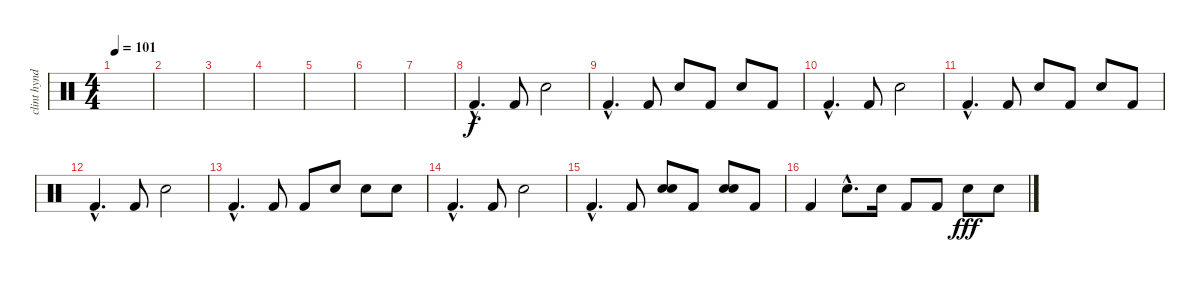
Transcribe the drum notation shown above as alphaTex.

\track ("clint hyndman" "clint hynd") {instrument percussion}
\staff {score}
\articulation defaults
\ts (4 4)
\tempo 101
\clef neutral
\ks c
|
|
|
|
|
|
|
"Kick (hit) 2"{hac}.4{d} "Kick (hit) 2".8 "Electric Snare (hit)".2 |
"Kick (hit) 2"{hac}.4{d} "Kick (hit) 2".8 "Electric Snare (hit)".8 "Kick (hit) 2".8 "Electric Snare (hit)".8 "Kick (hit) 2".8 |
"Kick (hit) 2"{hac}.4{d} "Kick (hit) 2".8 "Electric Snare (hit)".2 |
"Kick (hit) 2"{hac}.4{d} "Kick (hit) 2".8 "Electric Snare (hit)".8 "Kick (hit) 2".8 "Electric Snare (hit)".8 "Kick (hit) 2".8 |
"Kick (hit) 2"{hac}.4{d} "Kick (hit) 2".8 "Electric Snare (hit)".2 |
"Kick (hit) 2"{hac}.4{d} "Kick (hit) 2".8 "Kick (hit) 2".8 "Electric Snare (hit)".8 "Electric Snare (hit)".8 "Electric Snare (hit)".8 |
"Kick (hit) 2"{hac}.4{d} "Kick (hit) 2".8 "Electric Snare (hit)".2 |
"Kick (hit) 2"{hac}.4{d} "Kick (hit) 2".8 ("Electric Snare (hit)" "Electric Snare (hit)").8 "Kick (hit) 2".8 ("Electric Snare (hit)" "Electric Snare (hit)").8 "Kick (hit) 2".8 |
"Kick (hit) 2".4{dy f} "Electric Snare (hit)"{hac}.8{d} "Electric Snare (hit)".16 "Kick (hit) 2".8 "Kick (hit) 2".8 "Electric Snare (hit)".8{dy fff} "Electric Snare (hit)".8
